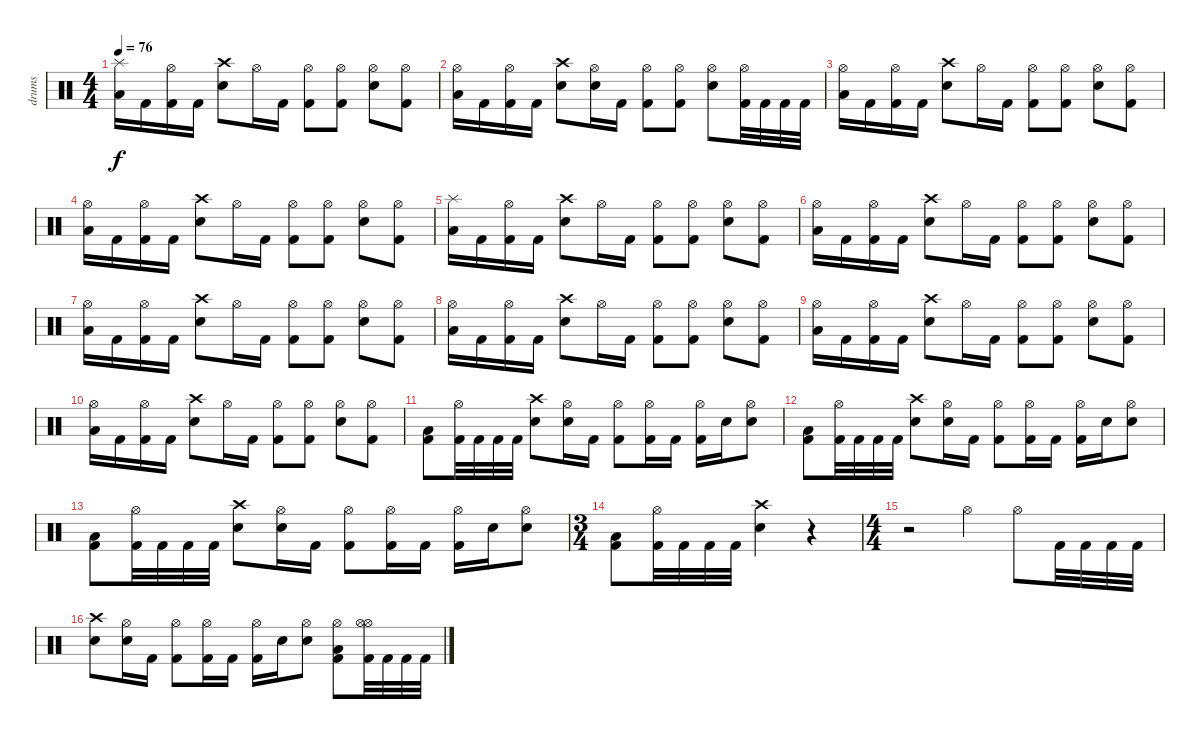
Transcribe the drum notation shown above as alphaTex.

\track ("drums" "drums") {instrument percussion}
\staff {score}
\articulation defaults
\ts (4 4)
\tempo 76
\clef neutral
\ks c
("Splash (hit)" "Low Tom (hit)").16{dy f} "Kick (hit) 2".16 ("Hi-Hat (open)" "Kick (hit) 2").16 "Kick (hit) 2".16 ("Crash high (hit)" "Electric Snare (hit)").8 "Hi-Hat (open)".16 "Kick (hit) 2".16 ("Hi-Hat (open)" "Kick (hit) 2").8 ("Hi-Hat (open)" "Kick (hit) 2").8 ("Hi-Hat (open)" "Electric Snare (hit)").8 ("Hi-Hat (open)" "Kick (hit) 2").8 |
("Hi-Hat (open)" "Low Tom (hit)").16 "Kick (hit) 2".16 ("Hi-Hat (open)" "Kick (hit) 2").16 "Kick (hit) 2".16 ("Crash high (hit)" "Electric Snare (hit)").8 ("Hi-Hat (open)" "Electric Snare (hit)").16 "Kick (hit) 2".16 ("Hi-Hat (open)" "Kick (hit) 2").8 ("Hi-Hat (open)" "Kick (hit) 2").8 ("Hi-Hat (open)" "Electric Snare (hit)").8 ("Hi-Hat (open)" "Kick (hit) 2").32 "Kick (hit) 2".32 "Kick (hit) 2".32 "Kick (hit) 2".32 |
("Hi-Hat (open)" "Low Tom (hit)").16 "Kick (hit) 2".16 ("Hi-Hat (open)" "Kick (hit) 2").16 "Kick (hit) 2".16 ("Crash high (hit)" "Electric Snare (hit)").8 "Hi-Hat (open)".16 "Kick (hit) 2".16 ("Hi-Hat (open)" "Kick (hit) 2").8 ("Hi-Hat (open)" "Kick (hit) 2").8 ("Hi-Hat (open)" "Electric Snare (hit)").8 ("Hi-Hat (open)" "Kick (hit) 2").8 |
("Hi-Hat (open)" "Low Tom (hit)").16 "Kick (hit) 2".16 ("Hi-Hat (open)" "Kick (hit) 2").16 "Kick (hit) 2".16 ("Crash high (hit)" "Electric Snare (hit)").8 "Hi-Hat (open)".16 "Kick (hit) 2".16 ("Hi-Hat (open)" "Kick (hit) 2").8 ("Hi-Hat (open)" "Kick (hit) 2").8 ("Hi-Hat (open)" "Electric Snare (hit)").8 ("Hi-Hat (open)" "Kick (hit) 2").8 |
("Splash (hit)" "Low Tom (hit)").16 "Kick (hit) 2".16 ("Hi-Hat (open)" "Kick (hit) 2").16 "Kick (hit) 2".16 ("Crash high (hit)" "Electric Snare (hit)").8 "Hi-Hat (open)".16 "Kick (hit) 2".16 ("Hi-Hat (open)" "Kick (hit) 2").8 ("Hi-Hat (open)" "Kick (hit) 2").8 ("Hi-Hat (open)" "Electric Snare (hit)").8 ("Hi-Hat (open)" "Kick (hit) 2").8 |
("Hi-Hat (open)" "Low Tom (hit)").16 "Kick (hit) 2".16 ("Hi-Hat (open)" "Kick (hit) 2").16 "Kick (hit) 2".16 ("Crash high (hit)" "Electric Snare (hit)").8 "Hi-Hat (open)".16 "Kick (hit) 2".16 ("Hi-Hat (open)" "Kick (hit) 2").8 ("Hi-Hat (open)" "Kick (hit) 2").8 ("Hi-Hat (open)" "Electric Snare (hit)").8 ("Hi-Hat (open)" "Kick (hit) 2").8 |
("Hi-Hat (open)" "Low Tom (hit)").16 "Kick (hit) 2".16 ("Hi-Hat (open)" "Kick (hit) 2").16 "Kick (hit) 2".16 ("Crash high (hit)" "Electric Snare (hit)").8 "Hi-Hat (open)".16 "Kick (hit) 2".16 ("Hi-Hat (open)" "Kick (hit) 2").8 ("Hi-Hat (open)" "Kick (hit) 2").8 ("Hi-Hat (open)" "Electric Snare (hit)").8 ("Hi-Hat (open)" "Kick (hit) 2").8 |
("Hi-Hat (open)" "Low Tom (hit)").16 "Kick (hit) 2".16 ("Hi-Hat (open)" "Kick (hit) 2").16 "Kick (hit) 2".16 ("Crash high (hit)" "Electric Snare (hit)").8 "Hi-Hat (open)".16 "Kick (hit) 2".16 ("Hi-Hat (open)" "Kick (hit) 2").8 ("Hi-Hat (open)" "Kick (hit) 2").8 ("Hi-Hat (open)" "Electric Snare (hit)").8 ("Hi-Hat (open)" "Kick (hit) 2").8 |
("Hi-Hat (open)" "Low Tom (hit)").16 "Kick (hit) 2".16 ("Hi-Hat (open)" "Kick (hit) 2").16 "Kick (hit) 2".16 ("Crash high (hit)" "Electric Snare (hit)").8 "Hi-Hat (open)".16 "Kick (hit) 2".16 ("Hi-Hat (open)" "Kick (hit) 2").8 ("Hi-Hat (open)" "Kick (hit) 2").8 ("Hi-Hat (open)" "Electric Snare (hit)").8 ("Hi-Hat (open)" "Kick (hit) 2").8 |
("Hi-Hat (open)" "Low Tom (hit)").16 "Kick (hit) 2".16 ("Hi-Hat (open)" "Kick (hit) 2").16 "Kick (hit) 2".16 ("Crash high (hit)" "Electric Snare (hit)").8 "Hi-Hat (open)".16 "Kick (hit) 2".16 ("Hi-Hat (open)" "Kick (hit) 2").8 ("Hi-Hat (open)" "Kick (hit) 2").8 ("Hi-Hat (open)" "Electric Snare (hit)").8 ("Hi-Hat (open)" "Kick (hit) 2").8 |
("Low Floor Tom (hit)" "Kick (hit) 2").8 ("Hi-Hat (open)" "Kick (hit) 2").32 "Kick (hit) 2".32 "Kick (hit) 2".32 "Kick (hit) 2".32 ("Crash high (hit)" "Electric Snare (hit)").8 ("Hi-Hat (open)" "Electric Snare (hit)").16 "Kick (hit) 2".16 ("Hi-Hat (open)" "Kick (hit) 2").8 ("Hi-Hat (open)" "Kick (hit) 2").16 "Kick (hit) 2".16 ("Hi-Hat (open)" "Kick (hit) 2").16 "Electric Snare (hit)".16 ("Hi-Hat (open)" "Electric Snare (hit)").8 |
("Low Floor Tom (hit)" "Kick (hit) 2").8 ("Hi-Hat (open)" "Kick (hit) 2").32 "Kick (hit) 2".32 "Kick (hit) 2".32 "Kick (hit) 2".32 ("Crash high (hit)" "Electric Snare (hit)").8 ("Hi-Hat (open)" "Electric Snare (hit)").16 "Kick (hit) 2".16 ("Hi-Hat (open)" "Kick (hit) 2").8 ("Hi-Hat (open)" "Kick (hit) 2").16 "Kick (hit) 2".16 ("Hi-Hat (open)" "Kick (hit) 2").16 "Electric Snare (hit)".16 ("Hi-Hat (open)" "Electric Snare (hit)").8 |
("Low Floor Tom (hit)" "Kick (hit) 2").8 ("Hi-Hat (open)" "Kick (hit) 2").32 "Kick (hit) 2".32 "Kick (hit) 2".32 "Kick (hit) 2".32 ("Crash high (hit)" "Electric Snare (hit)").8 ("Hi-Hat (open)" "Electric Snare (hit)").16 "Kick (hit) 2".16 ("Hi-Hat (open)" "Kick (hit) 2").8 ("Hi-Hat (open)" "Kick (hit) 2").16 "Kick (hit) 2".16 ("Hi-Hat (open)" "Kick (hit) 2").16 "Electric Snare (hit)".16 ("Hi-Hat (open)" "Electric Snare (hit)").8 |
\ts (3 4)
("Low Floor Tom (hit)" "Kick (hit) 2").8 ("Hi-Hat (open)" "Kick (hit) 2").32 "Kick (hit) 2".32 "Kick (hit) 2".32 "Kick (hit) 2".32 ("Crash high (hit)" "Electric Snare (hit)").4 r.4 |
\ts (4 4)
r.2 "Hi-Hat (open)".4 "Hi-Hat (open)".8 "Kick (hit) 2".32 "Kick (hit) 2".32 "Kick (hit) 2".32 "Kick (hit) 2".32 |
("Crash high (hit)" "Electric Snare (hit)").8 ("Hi-Hat (open)" "Electric Snare (hit)").16 "Kick (hit) 2".16 ("Hi-Hat (open)" "Kick (hit) 2").8 ("Hi-Hat (open)" "Kick (hit) 2").16 "Kick (hit) 2".16 ("Hi-Hat (open)" "Kick (hit) 2").16 "Electric Snare (hit)".16 ("Hi-Hat (open)" "Electric Snare (hit)").8 ("Hi-Hat (open)" "Low Floor Tom (hit)" "Kick (hit) 2").8 ("Hi-Hat (open)" "Hi-Hat (open)" "Kick (hit) 2").32 "Kick (hit) 2".32 "Kick (hit) 2".32 "Kick (hit) 2".32
